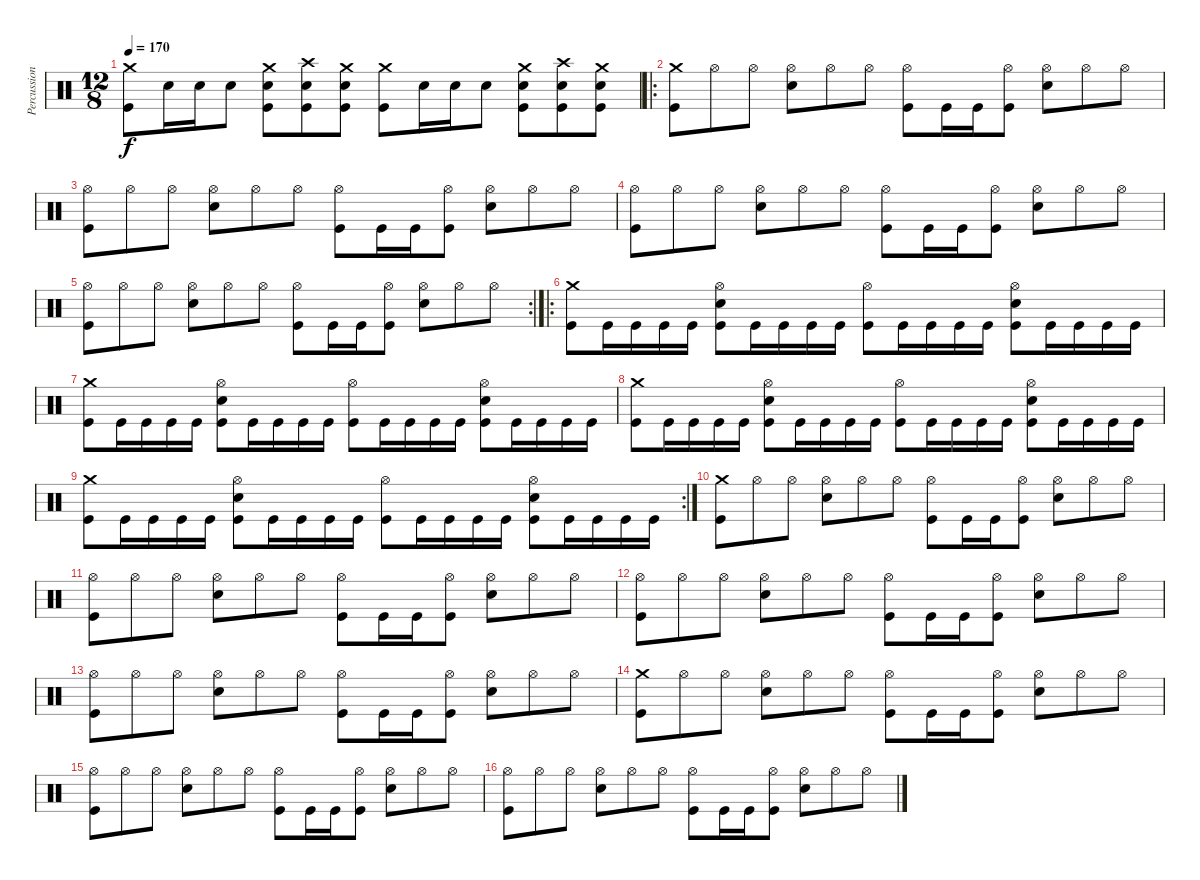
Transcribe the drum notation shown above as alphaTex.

\track ("Percussion" "Percussion") {instrument percussion}
\staff {score}
\articulation defaults
\ts (12 8)
\tempo 170
\clef neutral
\ks c
("Crash medium (hit)" "Kick (hit)").8{dy f} "Snare (hit) 2".16 "Snare (hit) 2".16 "Snare (hit) 2".8 ("Crash medium (hit)" "Snare (hit) 2" "Kick (hit)").8 ("Crash high (hit)" "Snare (hit) 2" "Kick (hit)").8 ("Crash medium (hit)" "Snare (hit) 2" "Kick (hit)").8 ("Crash medium (hit)" "Kick (hit)").8 "Snare (hit) 2".16 "Snare (hit) 2".16 "Snare (hit) 2".8 ("Crash medium (hit)" "Snare (hit) 2" "Kick (hit)").8 ("Crash high (hit)" "Snare (hit) 2" "Kick (hit)").8 ("Crash medium (hit)" "Snare (hit) 2" "Kick (hit)").8 |
\ro
("Crash medium (hit)" "Kick (hit)").8 "Hi-Hat (open)".8 "Hi-Hat (open)".8 ("Hi-Hat (open)" "Snare (hit) 2").8 "Hi-Hat (open)".8 "Hi-Hat (open)".8 ("Hi-Hat (open)" "Kick (hit)").8 "Kick (hit)".16 "Kick (hit)".16 ("Hi-Hat (open)" "Kick (hit)").8 ("Hi-Hat (open)" "Snare (hit) 2").8 "Hi-Hat (open)".8 "Hi-Hat (open)".8 |
("Hi-Hat (open)" "Kick (hit)").8 "Hi-Hat (open)".8 "Hi-Hat (open)".8 ("Hi-Hat (open)" "Snare (hit) 2").8 "Hi-Hat (open)".8 "Hi-Hat (open)".8 ("Hi-Hat (open)" "Kick (hit)").8 "Kick (hit)".16 "Kick (hit)".16 ("Hi-Hat (open)" "Kick (hit)").8 ("Hi-Hat (open)" "Snare (hit) 2").8 "Hi-Hat (open)".8 "Hi-Hat (open)".8 |
("Hi-Hat (open)" "Kick (hit)").8 "Hi-Hat (open)".8 "Hi-Hat (open)".8 ("Hi-Hat (open)" "Snare (hit) 2").8 "Hi-Hat (open)".8 "Hi-Hat (open)".8 ("Hi-Hat (open)" "Kick (hit)").8 "Kick (hit)".16 "Kick (hit)".16 ("Hi-Hat (open)" "Kick (hit)").8 ("Hi-Hat (open)" "Snare (hit) 2").8 "Hi-Hat (open)".8 "Hi-Hat (open)".8 |
\rc 2
("Hi-Hat (open)" "Kick (hit)").8 "Hi-Hat (open)".8 "Hi-Hat (open)".8 ("Hi-Hat (open)" "Snare (hit) 2").8 "Hi-Hat (open)".8 "Hi-Hat (open)".8 ("Hi-Hat (open)" "Kick (hit)").8 "Kick (hit)".16 "Kick (hit)".16 ("Hi-Hat (open)" "Kick (hit)").8 ("Hi-Hat (open)" "Snare (hit) 2").8 "Hi-Hat (open)".8 "Hi-Hat (open)".8 |
\ro
("Crash medium (hit)" "Kick (hit)").8 "Kick (hit)".16 "Kick (hit)".16 "Kick (hit)".16 "Kick (hit)".16 ("Hi-Hat (open)" "Snare (hit) 2" "Kick (hit)").8 "Kick (hit)".16 "Kick (hit)".16 "Kick (hit)".16 "Kick (hit)".16 ("Hi-Hat (open)" "Kick (hit)").8 "Kick (hit)".16 "Kick (hit)".16 "Kick (hit)".16 "Kick (hit)".16 ("Hi-Hat (open)" "Snare (hit) 2" "Kick (hit)").8 "Kick (hit)".16 "Kick (hit)".16 "Kick (hit)".16 "Kick (hit)".16 |
("Crash medium (hit)" "Kick (hit)").8 "Kick (hit)".16 "Kick (hit)".16 "Kick (hit)".16 "Kick (hit)".16 ("Hi-Hat (open)" "Snare (hit) 2" "Kick (hit)").8 "Kick (hit)".16 "Kick (hit)".16 "Kick (hit)".16 "Kick (hit)".16 ("Hi-Hat (open)" "Kick (hit)").8 "Kick (hit)".16 "Kick (hit)".16 "Kick (hit)".16 "Kick (hit)".16 ("Hi-Hat (open)" "Snare (hit) 2" "Kick (hit)").8 "Kick (hit)".16 "Kick (hit)".16 "Kick (hit)".16 "Kick (hit)".16 |
("Crash medium (hit)" "Kick (hit)").8 "Kick (hit)".16 "Kick (hit)".16 "Kick (hit)".16 "Kick (hit)".16 ("Hi-Hat (open)" "Snare (hit) 2" "Kick (hit)").8 "Kick (hit)".16 "Kick (hit)".16 "Kick (hit)".16 "Kick (hit)".16 ("Hi-Hat (open)" "Kick (hit)").8 "Kick (hit)".16 "Kick (hit)".16 "Kick (hit)".16 "Kick (hit)".16 ("Hi-Hat (open)" "Snare (hit) 2" "Kick (hit)").8 "Kick (hit)".16 "Kick (hit)".16 "Kick (hit)".16 "Kick (hit)".16 |
\rc 2
("Crash medium (hit)" "Kick (hit)").8 "Kick (hit)".16 "Kick (hit)".16 "Kick (hit)".16 "Kick (hit)".16 ("Hi-Hat (open)" "Snare (hit) 2" "Kick (hit)").8 "Kick (hit)".16 "Kick (hit)".16 "Kick (hit)".16 "Kick (hit)".16 ("Hi-Hat (open)" "Kick (hit)").8 "Kick (hit)".16 "Kick (hit)".16 "Kick (hit)".16 "Kick (hit)".16 ("Hi-Hat (open)" "Snare (hit) 2" "Kick (hit)").8 "Kick (hit)".16 "Kick (hit)".16 "Kick (hit)".16 "Kick (hit)".16 |
("Crash medium (hit)" "Kick (hit)").8 "Hi-Hat (open)".8 "Hi-Hat (open)".8 ("Hi-Hat (open)" "Snare (hit) 2").8 "Hi-Hat (open)".8 "Hi-Hat (open)".8 ("Hi-Hat (open)" "Kick (hit)").8 "Kick (hit)".16 "Kick (hit)".16 ("Hi-Hat (open)" "Kick (hit)").8 ("Hi-Hat (open)" "Snare (hit) 2").8 "Hi-Hat (open)".8 "Hi-Hat (open)".8 |
("Hi-Hat (open)" "Kick (hit)").8 "Hi-Hat (open)".8 "Hi-Hat (open)".8 ("Hi-Hat (open)" "Snare (hit) 2").8 "Hi-Hat (open)".8 "Hi-Hat (open)".8 ("Hi-Hat (open)" "Kick (hit)").8 "Kick (hit)".16 "Kick (hit)".16 ("Hi-Hat (open)" "Kick (hit)").8 ("Hi-Hat (open)" "Snare (hit) 2").8 "Hi-Hat (open)".8 "Hi-Hat (open)".8 |
("Hi-Hat (open)" "Kick (hit)").8 "Hi-Hat (open)".8 "Hi-Hat (open)".8 ("Hi-Hat (open)" "Snare (hit) 2").8 "Hi-Hat (open)".8 "Hi-Hat (open)".8 ("Hi-Hat (open)" "Kick (hit)").8 "Kick (hit)".16 "Kick (hit)".16 ("Hi-Hat (open)" "Kick (hit)").8 ("Hi-Hat (open)" "Snare (hit) 2").8 "Hi-Hat (open)".8 "Hi-Hat (open)".8 |
("Hi-Hat (open)" "Kick (hit)").8 "Hi-Hat (open)".8 "Hi-Hat (open)".8 ("Hi-Hat (open)" "Snare (hit) 2").8 "Hi-Hat (open)".8 "Hi-Hat (open)".8 ("Hi-Hat (open)" "Kick (hit)").8 "Kick (hit)".16 "Kick (hit)".16 ("Hi-Hat (open)" "Kick (hit)").8 ("Hi-Hat (open)" "Snare (hit) 2").8 "Hi-Hat (open)".8 "Hi-Hat (open)".8 |
("Crash medium (hit)" "Kick (hit)").8 "Hi-Hat (open)".8 "Hi-Hat (open)".8 ("Hi-Hat (open)" "Snare (hit) 2").8 "Hi-Hat (open)".8 "Hi-Hat (open)".8 ("Hi-Hat (open)" "Kick (hit)").8 "Kick (hit)".16 "Kick (hit)".16 ("Hi-Hat (open)" "Kick (hit)").8 ("Hi-Hat (open)" "Snare (hit) 2").8 "Hi-Hat (open)".8 "Hi-Hat (open)".8 |
("Hi-Hat (open)" "Kick (hit)").8 "Hi-Hat (open)".8 "Hi-Hat (open)".8 ("Hi-Hat (open)" "Snare (hit) 2").8 "Hi-Hat (open)".8 "Hi-Hat (open)".8 ("Hi-Hat (open)" "Kick (hit)").8 "Kick (hit)".16 "Kick (hit)".16 ("Hi-Hat (open)" "Kick (hit)").8 ("Hi-Hat (open)" "Snare (hit) 2").8 "Hi-Hat (open)".8 "Hi-Hat (open)".8 |
("Hi-Hat (open)" "Kick (hit)").8 "Hi-Hat (open)".8 "Hi-Hat (open)".8 ("Hi-Hat (open)" "Snare (hit) 2").8 "Hi-Hat (open)".8 "Hi-Hat (open)".8 ("Hi-Hat (open)" "Kick (hit)").8 "Kick (hit)".16 "Kick (hit)".16 ("Hi-Hat (open)" "Kick (hit)").8 ("Hi-Hat (open)" "Snare (hit) 2").8 "Hi-Hat (open)".8 "Hi-Hat (open)".8
